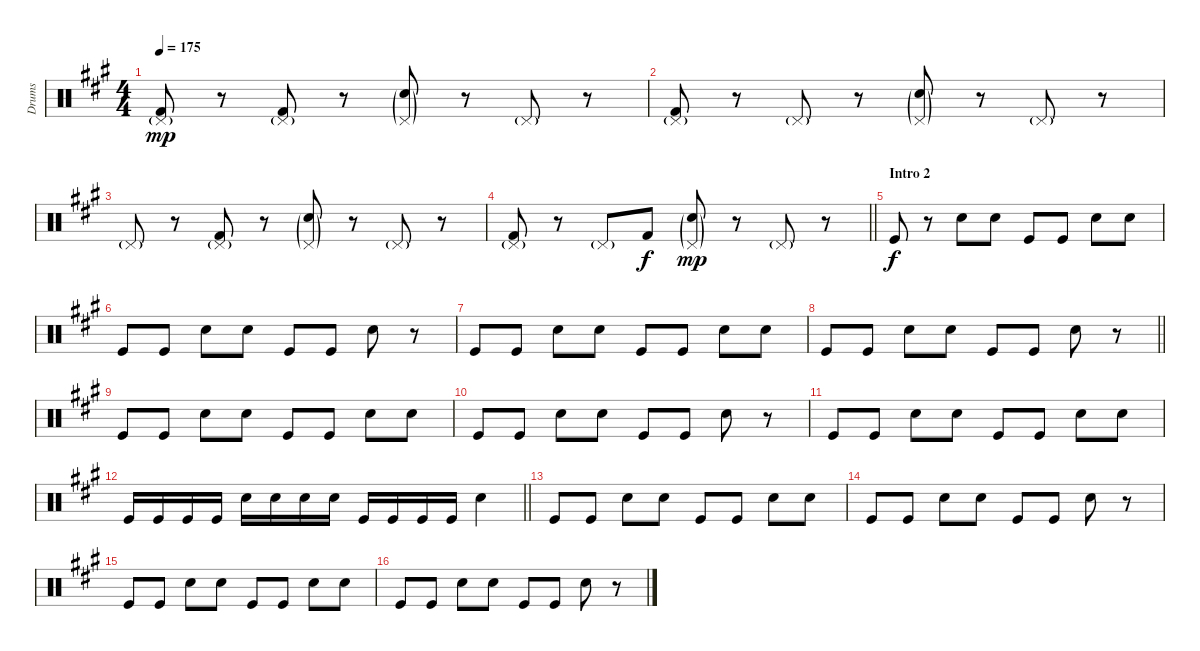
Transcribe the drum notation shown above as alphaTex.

\track ("Drums" "Drums") {instrument percussion}
\staff {score}
\articulation defaults
\ts (4 4)
\tempo 175
\clef neutral
\ks f#minor
("Pedal Hi-Hat (hit)"{g} "Kick (hit) 2").8{dy mp} r.8 ("Pedal Hi-Hat (hit)"{g} "Kick (hit) 2").8 r.8 ("Pedal Hi-Hat (hit)"{g} "Snare (hit) 2"{g}).8 r.8 "Pedal Hi-Hat (hit)"{g}.8 r.8 |
("Pedal Hi-Hat (hit)"{g} "Kick (hit) 2").8 r.8 "Pedal Hi-Hat (hit)"{g}.8 r.8 ("Pedal Hi-Hat (hit)"{g} "Snare (hit) 2"{g}).8 r.8 "Pedal Hi-Hat (hit)"{g}.8 r.8 |
"Pedal Hi-Hat (hit)"{g}.8 r.8 ("Pedal Hi-Hat (hit)"{g} "Kick (hit) 2").8 r.8 ("Pedal Hi-Hat (hit)"{g} "Snare (hit) 2"{g}).8 r.8 "Pedal Hi-Hat (hit)"{g}.8 r.8 |
\barLineRight lightlight
("Pedal Hi-Hat (hit)"{g} "Kick (hit) 2").8 r.8 "Pedal Hi-Hat (hit)"{g}.8 "Kick (hit) 2".8{dy f} ("Pedal Hi-Hat (hit)"{g} "Snare (hit) 2"{g}).8{dy mp} r.8 "Pedal Hi-Hat (hit)"{g}.8 r.8 |
\section ("" "Intro 2")
"Kick (hit)".8{dy f} r.8 "Snare (hit) 2".8 "Snare (hit) 2".8 "Kick (hit)".8 "Kick (hit)".8 "Snare (hit) 2".8 "Snare (hit) 2".8 |
"Kick (hit)".8 "Kick (hit)".8 "Snare (hit) 2".8 "Snare (hit) 2".8 "Kick (hit)".8 "Kick (hit)".8 "Snare (hit) 2".8 r.8 |
"Kick (hit)".8 "Kick (hit)".8 "Snare (hit) 2".8 "Snare (hit) 2".8 "Kick (hit)".8 "Kick (hit)".8 "Snare (hit) 2".8 "Snare (hit) 2".8 |
\barLineRight lightlight "Kick (hit)".8 "Kick (hit)".8 "Snare (hit) 2".8 "Snare (hit) 2".8 "Kick (hit)".8 "Kick (hit)".8 "Snare (hit) 2".8
r.8 |
"Kick (hit)".8 "Kick (hit)".8 "Snare (hit) 2".8 "Snare (hit) 2".8 "Kick (hit)".8 "Kick (hit)".8 "Snare (hit) 2".8 "Snare (hit) 2".8 |
"Kick (hit)".8 "Kick (hit)".8 "Snare (hit) 2".8 "Snare (hit) 2".8 "Kick (hit)".8 "Kick (hit)".8 "Snare (hit) 2".8 r.8 |
"Kick (hit)".8 "Kick (hit)".8 "Snare (hit) 2".8 "Snare (hit) 2".8 "Kick (hit)".8 "Kick (hit)".8 "Snare (hit) 2".8 "Snare (hit) 2".8 |
\barLineRight lightlight "Kick (hit)".16 "Kick (hit)".16 "Kick (hit)".16 "Kick (hit)".16 "Snare (hit) 2".16 "Snare (hit) 2".16 "Snare (hit) 2".16 "Snare (hit) 2".16 "Kick (hit)".16 "Kick (hit)".16 "Kick (hit)".16 "Kick (hit)".16 "Snare (hit) 2".4
|
"Kick (hit)".8 "Kick (hit)".8 "Snare (hit) 2".8 "Snare (hit) 2".8 "Kick (hit)".8 "Kick (hit)".8 "Snare (hit) 2".8 "Snare (hit) 2".8 |
"Kick (hit)".8 "Kick (hit)".8 "Snare (hit) 2".8 "Snare (hit) 2".8 "Kick (hit)".8 "Kick (hit)".8 "Snare (hit) 2".8 r.8 |
"Kick (hit)".8 "Kick (hit)".8 "Snare (hit) 2".8 "Snare (hit) 2".8 "Kick (hit)".8 "Kick (hit)".8 "Snare (hit) 2".8 "Snare (hit) 2".8 |
"Kick (hit)".8 "Kick (hit)".8 "Snare (hit) 2".8 "Snare (hit) 2".8 "Kick (hit)".8 "Kick (hit)".8 "Snare (hit) 2".8 r.8
